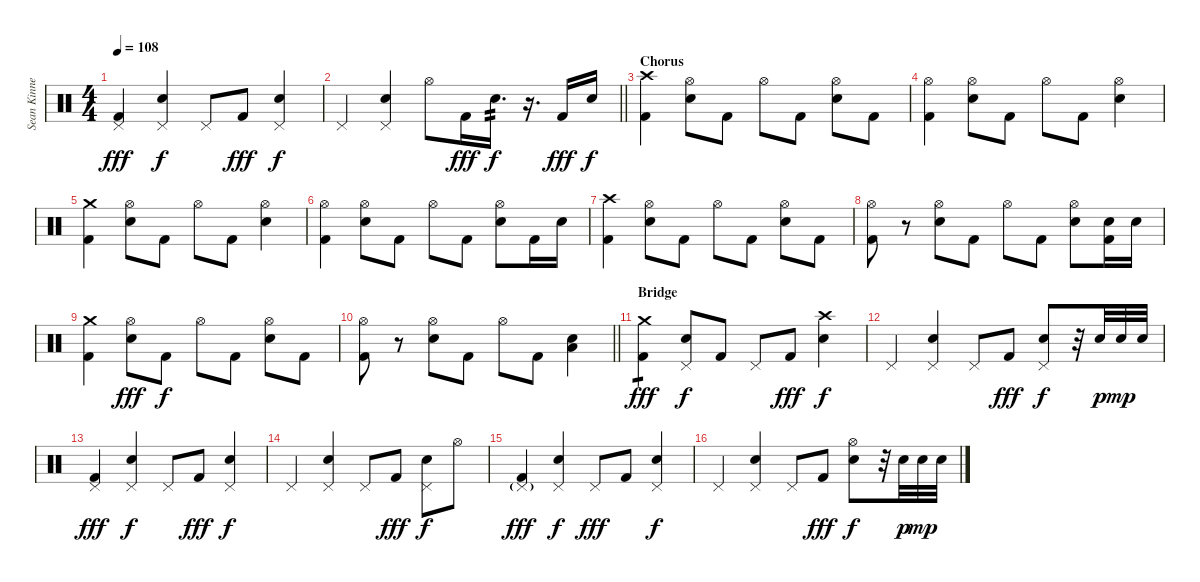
\track ("Sean Kinney" "Sean Kinne") {instrument percussion}
\staff {score}
\articulation defaults
\ts (4 4)
\tempo 108
\clef neutral
\ks c
("Pedal Hi-Hat (hit)" "Kick (hit) 2").4{dy fff} ("Pedal Hi-Hat (hit)" "Snare (hit) 2").4{dy f} "Pedal Hi-Hat (hit)".8 "Kick (hit) 2".8{dy fff} ("Pedal Hi-Hat (hit)" "Snare (hit) 2").4{dy f} |
\barLineRight lightlight "Pedal Hi-Hat (hit)".4
("Pedal Hi-Hat (hit)" "Snare (hit) 2").4 "Hi-Hat (open)".8 "Kick (hit) 2".16{dy fff} "Snare (hit) 2".16{d tp 2 dy f} r.16{d} "Kick (hit) 2".16{dy fff} "Snare (hit) 2".16{dy f} |
\section ("" "Chorus ")
("Crash high (hit)" "Kick (hit) 2").4 ("Hi-Hat (open)" "Snare (hit) 2").8 "Kick (hit) 2".8 "Hi-Hat (open)".8 "Kick (hit) 2".8 ("Hi-Hat (open)" "Snare (hit) 2").8 "Kick (hit) 2".8 |
("Hi-Hat (open)" "Kick (hit) 2").4 ("Hi-Hat (open)" "Snare (hit) 2").8 "Kick (hit) 2".8 "Hi-Hat (open)".8 "Kick (hit) 2".8 ("Hi-Hat (open)" "Snare (hit) 2").4 |
("Crash medium (hit)" "Kick (hit) 2").4 ("Hi-Hat (open)" "Snare (hit) 2").8 "Kick (hit) 2".8 "Hi-Hat (open)".8 "Kick (hit) 2".8 ("Hi-Hat (open)" "Snare (hit) 2").4 |
("Hi-Hat (open)" "Kick (hit) 2").4 ("Hi-Hat (open)" "Snare (hit) 2").8 "Kick (hit) 2".8 "Hi-Hat (open)".8 "Kick (hit) 2".8 ("Hi-Hat (open)" "Snare (hit) 2").8 "Kick (hit) 2".16 "Snare (hit) 2".16 |
("Crash high (hit)" "Kick (hit) 2").4 ("Hi-Hat (open)" "Snare (hit) 2").8 "Kick (hit) 2".8 "Hi-Hat (open)".8 "Kick (hit) 2".8 ("Hi-Hat (open)" "Snare (hit) 2").8 "Kick (hit) 2".8 |
("Hi-Hat (open)" "Kick (hit) 2").8 r.8 ("Hi-Hat (open)" "Snare (hit) 2").8 "Kick (hit) 2".8 "Hi-Hat (open)".8 "Kick (hit) 2".8 ("Hi-Hat (open)" "Snare (hit) 2").8 ("Snare (hit) 2" "Kick (hit) 2").16 "Snare (hit) 2".16 |
("Crash medium (hit)" "Kick (hit) 2").4 ("Hi-Hat (open)" "Snare (hit) 2").8{dy fff} "Kick (hit) 2".8{dy f} "Hi-Hat (open)".8 "Kick (hit) 2".8 ("Hi-Hat (open)" "Snare (hit) 2").8 "Kick (hit) 2".8 |
\barLineRight lightlight
("Hi-Hat (open)" "Kick (hit) 2").8 r.8 ("Hi-Hat (open)" "Snare (hit) 2").8 "Kick (hit) 2".8 "Hi-Hat (open)".8 "Kick (hit) 2".8 ("Low Tom (hit)" "Snare (hit) 2").4 |
\section ("" "Bridge")
("Crash medium (hit)" "Kick (hit) 2").4{tp 1 dy fff} ("Pedal Hi-Hat (hit)" "Snare (hit) 2").8{dy f} "Kick (hit) 2".8 "Pedal Hi-Hat (hit)".8 "Kick (hit) 2".8{dy fff} ("Crash high (hit)" "Snare (hit) 2").4{dy f} |
"Pedal Hi-Hat (hit)".4 ("Pedal Hi-Hat (hit)" "Snare (hit) 2").4 "Pedal Hi-Hat (hit)".8 "Kick (hit) 2".8{dy fff} ("Pedal Hi-Hat (hit)" "Snare (hit) 2").8{dy f} r.32 "Snare (hit) 2".32{dy p} "Snare (hit) 2".32{dy mp} "Snare (hit) 2".32 |
("Pedal Hi-Hat (hit)" "Kick (hit) 2").4{dy fff} ("Pedal Hi-Hat (hit)" "Snare (hit) 2").4{dy f} "Pedal Hi-Hat (hit)".8 "Kick (hit) 2".8{dy fff} ("Pedal Hi-Hat (hit)" "Snare (hit) 2").4{dy f} |
"Pedal Hi-Hat (hit)".4 ("Pedal Hi-Hat (hit)" "Snare (hit) 2").4 "Pedal Hi-Hat (hit)".8 "Kick (hit) 2".8{dy fff} ("Pedal Hi-Hat (hit)" "Snare (hit) 2").8{dy f} "Hi-Hat (open)".8 |
("Pedal Hi-Hat (hit)"{g} "Kick (hit) 2").4{dy fff} ("Pedal Hi-Hat (hit)" "Snare (hit) 2").4{dy f} "Pedal Hi-Hat (hit)".8{dy fff} "Kick (hit) 2".8 ("Pedal Hi-Hat (hit)" "Snare (hit) 2").4{dy f} |
"Pedal Hi-Hat (hit)".4 ("Pedal Hi-Hat (hit)" "Snare (hit) 2").4 "Pedal Hi-Hat (hit)".8 "Kick (hit) 2".8{dy fff} ("Hi-Hat (open)" "Snare (hit) 2").8{dy f} r.32 "Snare (hit) 2".32{dy p} "Snare (hit) 2".32{dy mp} "Snare (hit) 2".32
